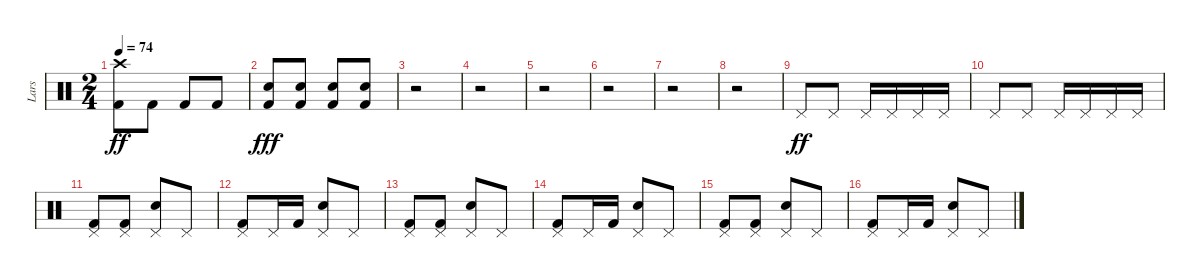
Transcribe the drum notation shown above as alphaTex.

\track ("Lars" "Lars") {instrument percussion}
\staff {score}
\articulation defaults
\ts (2 4)
\tempo 74
\clef neutral
\ks c
("Crash high (hit)" "Kick (hit) 2").8{dy ff} "Kick (hit) 2".8 "Kick (hit) 2".8 "Kick (hit) 2".8 |
("Snare (hit) 2" "Kick (hit) 2").8{dy fff} ("Snare (hit) 2" "Kick (hit) 2").8 ("Snare (hit) 2" "Kick (hit) 2").8 ("Snare (hit) 2" "Kick (hit) 2").8 |
r.2 |
r.2 |
r.2 |
r.2 |
r.2 |
r.2 |
"Pedal Hi-Hat (hit)".8{dy ff} "Pedal Hi-Hat (hit)".8 "Pedal Hi-Hat (hit)".16 "Pedal Hi-Hat (hit)".16 "Pedal Hi-Hat (hit)".16 "Pedal Hi-Hat (hit)".16 |
"Pedal Hi-Hat (hit)".8 "Pedal Hi-Hat (hit)".8 "Pedal Hi-Hat (hit)".16 "Pedal Hi-Hat (hit)".16 "Pedal Hi-Hat (hit)".16 "Pedal Hi-Hat (hit)".16 |
("Pedal Hi-Hat (hit)" "Kick (hit) 2").8 ("Pedal Hi-Hat (hit)" "Kick (hit) 2").8 ("Pedal Hi-Hat (hit)" "Snare (hit) 2").8 "Pedal Hi-Hat (hit)".8 |
("Pedal Hi-Hat (hit)" "Kick (hit) 2").8 "Pedal Hi-Hat (hit)".16 "Kick (hit) 2".16 ("Pedal Hi-Hat (hit)" "Snare (hit) 2").8 "Pedal Hi-Hat (hit)".8 |
("Pedal Hi-Hat (hit)" "Kick (hit) 2").8 ("Pedal Hi-Hat (hit)" "Kick (hit) 2").8 ("Pedal Hi-Hat (hit)" "Snare (hit) 2").8 "Pedal Hi-Hat (hit)".8 |
("Pedal Hi-Hat (hit)" "Kick (hit) 2").8 "Pedal Hi-Hat (hit)".16 "Kick (hit) 2".16 ("Pedal Hi-Hat (hit)" "Snare (hit) 2").8 "Pedal Hi-Hat (hit)".8 |
("Pedal Hi-Hat (hit)" "Kick (hit) 2").8 ("Pedal Hi-Hat (hit)" "Kick (hit) 2").8 ("Pedal Hi-Hat (hit)" "Snare (hit) 2").8 "Pedal Hi-Hat (hit)".8 |
("Pedal Hi-Hat (hit)" "Kick (hit) 2").8 "Pedal Hi-Hat (hit)".16 "Kick (hit) 2".16 ("Pedal Hi-Hat (hit)" "Snare (hit) 2").8 "Pedal Hi-Hat (hit)".8
